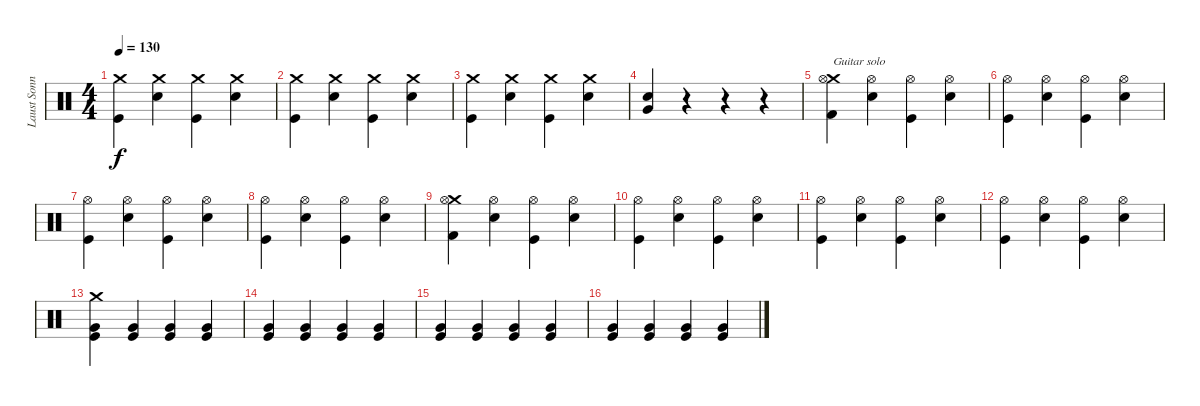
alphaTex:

\track ("Laust Sonne (Trommer)" "Laust Sonn") {instrument percussion}
\staff {score}
\articulation defaults
\ts (4 4)
\tempo 130
\clef neutral
\ks c
("Crash medium (hit)" "Kick (hit)").4{dy f} ("Crash medium (hit)" "Snare (hit) 2").4 ("Crash medium (hit)" "Kick (hit)").4 ("Crash medium (hit)" "Snare (hit) 2").4 |
("Crash medium (hit)" "Kick (hit)").4 ("Crash medium (hit)" "Snare (hit) 2").4 ("Crash medium (hit)" "Kick (hit)").4 ("Crash medium (hit)" "Snare (hit) 2").4 |
("Crash medium (hit)" "Kick (hit)").4 ("Crash medium (hit)" "Snare (hit) 2").4 ("Crash medium (hit)" "Kick (hit)").4 ("Crash medium (hit)" "Snare (hit) 2").4 |
("Very Low Tom (hit)" "Snare (hit) 2").4 r.4 r.4 r.4 |
("Crash medium (hit)" "Hi-Hat (open)" "Kick (hit) 2").4{txt "Guitar solo"} ("Hi-Hat (open)" "Snare (hit) 2").4 ("Hi-Hat (open)" "Kick (hit)").4 ("Hi-Hat (open)" "Snare (hit) 2").4 |
("Hi-Hat (open)" "Kick (hit)").4 ("Hi-Hat (open)" "Snare (hit) 2").4 ("Hi-Hat (open)" "Kick (hit)").4 ("Hi-Hat (open)" "Snare (hit) 2").4 |
("Hi-Hat (open)" "Kick (hit)").4 ("Hi-Hat (open)" "Snare (hit) 2").4 ("Hi-Hat (open)" "Kick (hit)").4 ("Hi-Hat (open)" "Snare (hit) 2").4 |
("Hi-Hat (open)" "Kick (hit)").4 ("Hi-Hat (open)" "Snare (hit) 2").4 ("Hi-Hat (open)" "Kick (hit)").4 ("Hi-Hat (open)" "Snare (hit) 2").4 |
("Crash medium (hit)" "Hi-Hat (open)" "Kick (hit) 2").4 ("Hi-Hat (open)" "Snare (hit) 2").4 ("Hi-Hat (open)" "Kick (hit)").4 ("Hi-Hat (open)" "Snare (hit) 2").4 |
("Hi-Hat (open)" "Kick (hit)").4 ("Hi-Hat (open)" "Snare (hit) 2").4 ("Hi-Hat (open)" "Kick (hit)").4 ("Hi-Hat (open)" "Snare (hit) 2").4 |
("Hi-Hat (open)" "Kick (hit)").4 ("Hi-Hat (open)" "Snare (hit) 2").4 ("Hi-Hat (open)" "Kick (hit)").4 ("Hi-Hat (open)" "Snare (hit) 2").4 |
("Hi-Hat (open)" "Kick (hit)").4 ("Hi-Hat (open)" "Snare (hit) 2").4 ("Hi-Hat (open)" "Kick (hit)").4 ("Hi-Hat (open)" "Snare (hit) 2").4 |
("Very Low Tom (hit)" "Kick (hit)" "Crash medium (hit)").4 ("Very Low Tom (hit)" "Kick (hit)").4 ("Very Low Tom (hit)" "Kick (hit)").4 ("Very Low Tom (hit)" "Kick (hit)").4 |
("Very Low Tom (hit)" "Kick (hit)").4 ("Very Low Tom (hit)" "Kick (hit)").4 ("Very Low Tom (hit)" "Kick (hit)").4 ("Very Low Tom (hit)" "Kick (hit)").4 |
("Very Low Tom (hit)" "Kick (hit)").4 ("Very Low Tom (hit)" "Kick (hit)").4 ("Very Low Tom (hit)" "Kick (hit)").4 ("Very Low Tom (hit)" "Kick (hit)").4 |
("Very Low Tom (hit)" "Kick (hit)").4 ("Very Low Tom (hit)" "Kick (hit)").4 ("Very Low Tom (hit)" "Kick (hit)").4 ("Very Low Tom (hit)" "Kick (hit)").4
